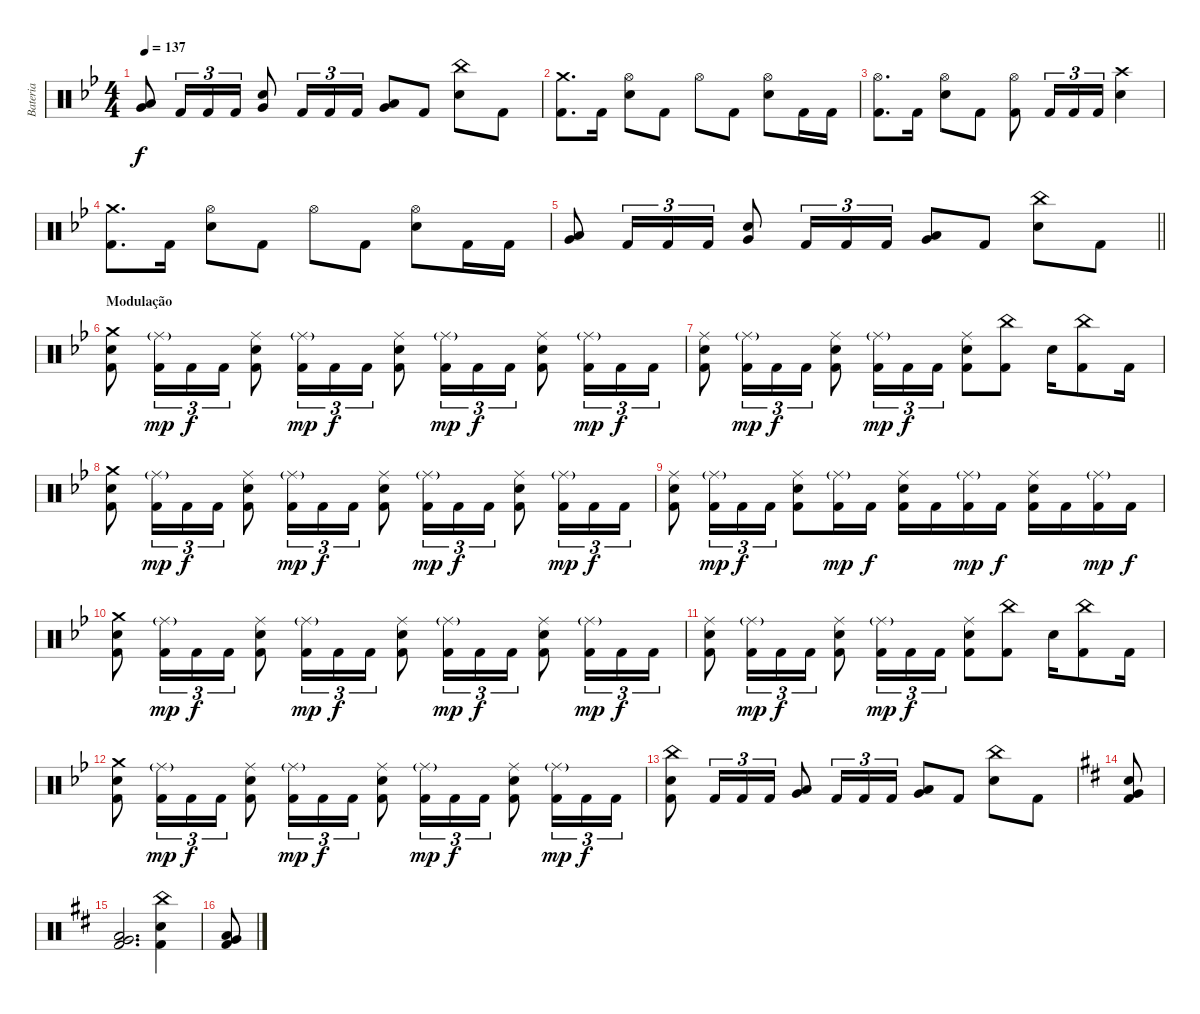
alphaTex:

\track ("Bateria" "Bateria") {instrument percussion}
\staff {score}
\articulation defaults
\ts (4 4)
\tempo 137
\clef neutral
\ks gminor
("Low Floor Tom (hit)" "Very Low Tom (hit)").8{dy f} "Kick (hit) 2".16{tu (3 2)} "Kick (hit) 2".16{tu (3 2)} "Kick (hit) 2".16{tu (3 2)} ("Very Low Tom (hit)" "Electric Snare (hit)").8 "Kick (hit) 2".16{tu (3 2)} "Kick (hit) 2".16{tu (3 2)} "Kick (hit) 2".16{tu (3 2)} ("Low Floor Tom (hit)" "Very Low Tom (hit)").8 "Kick (hit) 2".8 ("China (hit)" "Electric Snare (hit)").8 "Kick (hit) 2".8 |
("Crash medium (hit)" "Kick (hit) 2").8{d} "Kick (hit) 2".16 ("Hi-Hat (open)" "Electric Snare (hit)").8 "Kick (hit) 2".8 "Hi-Hat (open)".8 "Kick (hit) 2".8 ("Hi-Hat (open)" "Electric Snare (hit)").8 "Kick (hit) 2".16 "Kick (hit) 2".16 |
("Hi-Hat (open)" "Kick (hit) 2").8{d} "Kick (hit) 2".16 ("Hi-Hat (open)" "Electric Snare (hit)").8 "Kick (hit) 2".8 ("Hi-Hat (open)" "Kick (hit) 2").8 "Kick (hit) 2".16{tu (3 2)} "Kick (hit) 2".16{tu (3 2)} "Kick (hit) 2".16{tu (3 2)} ("Crash high (hit)" "Electric Snare (hit)").4 |
("Crash medium (hit)" "Kick (hit) 2").8{d} "Kick (hit) 2".16 ("Hi-Hat (open)" "Electric Snare (hit)").8 "Kick (hit) 2".8 "Hi-Hat (open)".8 "Kick (hit) 2".8 ("Hi-Hat (open)" "Electric Snare (hit)").8 "Kick (hit) 2".16 "Kick (hit) 2".16 |
\barLineRight lightlight
("Low Floor Tom (hit)" "Very Low Tom (hit)").8 "Kick (hit) 2".16{tu (3 2)} "Kick (hit) 2".16{tu (3 2)} "Kick (hit) 2".16{tu (3 2)} ("Very Low Tom (hit)" "Electric Snare (hit)").8 "Kick (hit) 2".16{tu (3 2)} "Kick (hit) 2".16{tu (3 2)} "Kick (hit) 2".16{tu (3 2)} ("Low Floor Tom (hit)" "Very Low Tom (hit)").8 "Kick (hit) 2".8 ("China (hit)" "Electric Snare (hit)").8 "Kick (hit) 2".8 |
\section ("" "Modulação")
("Crash medium (hit)" "Electric Snare (hit)" "Kick (hit) 2").8 ("Ride (middle)"{g} "Kick (hit) 2").16{tu (3 2) dy mp} "Kick (hit) 2".16{tu (3 2) dy f} "Kick (hit) 2".16{tu (3 2)} ("Ride (middle)" "Electric Snare (hit)" "Kick (hit) 2").8 ("Ride (middle)"{g} "Kick (hit) 2").16{tu (3 2) dy mp} "Kick (hit) 2".16{tu (3 2) dy f} "Kick (hit) 2".16{tu (3 2)} ("Ride (middle)" "Electric Snare (hit)" "Kick (hit) 2").8 ("Ride (middle)"{g} "Kick (hit) 2").16{tu (3 2) dy mp} "Kick (hit) 2".16{tu (3 2) dy f} "Kick (hit) 2".16{tu (3 2)} ("Ride (middle)" "Electric Snare (hit)" "Kick (hit) 2").8 ("Ride (middle)"{g} "Kick (hit) 2").16{tu (3 2) dy mp} "Kick (hit) 2".16{tu (3 2) dy f} "Kick (hit) 2".16{tu (3 2)} |
("Ride (middle)" "Electric Snare (hit)" "Kick (hit) 2").8 ("Ride (middle)"{g} "Kick (hit) 2").16{tu (3 2) dy mp} "Kick (hit) 2".16{tu (3 2) dy f} "Kick (hit) 2".16{tu (3 2)} ("Ride (middle)" "Electric Snare (hit)" "Kick (hit) 2").8 ("Ride (middle)"{g} "Kick (hit) 2").16{tu (3 2) dy mp} "Kick (hit) 2".16{tu (3 2) dy f} "Kick (hit) 2".16{tu (3 2)} ("Ride (middle)" "Electric Snare (hit)" "Kick (hit) 2").8 ("China (hit)" "Kick (hit) 2").8 "Electric Snare (hit)".16 ("China (hit)" "Kick (hit) 2").8 "Kick (hit) 2".16 |
("Crash medium (hit)" "Electric Snare (hit)" "Kick (hit) 2").8 ("Ride (middle)"{g} "Kick (hit) 2").16{tu (3 2) dy mp} "Kick (hit) 2".16{tu (3 2) dy f} "Kick (hit) 2".16{tu (3 2)} ("Ride (middle)" "Electric Snare (hit)" "Kick (hit) 2").8 ("Ride (middle)"{g} "Kick (hit) 2").16{tu (3 2) dy mp} "Kick (hit) 2".16{tu (3 2) dy f} "Kick (hit) 2".16{tu (3 2)} ("Ride (middle)" "Electric Snare (hit)" "Kick (hit) 2").8 ("Ride (middle)"{g} "Kick (hit) 2").16{tu (3 2) dy mp} "Kick (hit) 2".16{tu (3 2) dy f} "Kick (hit) 2".16{tu (3 2)} ("Ride (middle)" "Electric Snare (hit)" "Kick (hit) 2").8 ("Ride (middle)"{g} "Kick (hit) 2").16{tu (3 2) dy mp} "Kick (hit) 2".16{tu (3 2) dy f} "Kick (hit) 2".16{tu (3 2)} |
("Ride (middle)" "Electric Snare (hit)" "Kick (hit) 2").8 ("Ride (middle)"{g} "Kick (hit) 2").16{tu (3 2) dy mp} "Kick (hit) 2".16{tu (3 2) dy f} "Kick (hit) 2".16{tu (3 2)} ("Ride (middle)" "Electric Snare (hit)" "Kick (hit) 2").8 ("Ride (middle)"{g} "Kick (hit) 2").16{dy mp} "Kick (hit) 2".16{dy f} ("Ride (middle)" "Electric Snare (hit)" "Kick (hit) 2").16 "Kick (hit) 2".16 ("Ride (middle)"{g} "Kick (hit) 2").16{dy mp} "Kick (hit) 2".16{dy f} ("Ride (middle)" "Electric Snare (hit)" "Kick (hit) 2").16 "Kick (hit) 2".16 ("Ride (middle)"{g} "Kick (hit) 2").16{dy mp} "Kick (hit) 2".16{dy f} |
("Crash medium (hit)" "Electric Snare (hit)" "Kick (hit) 2").8 ("Ride (middle)"{g} "Kick (hit) 2").16{tu (3 2) dy mp} "Kick (hit) 2".16{tu (3 2) dy f} "Kick (hit) 2".16{tu (3 2)} ("Ride (middle)" "Electric Snare (hit)" "Kick (hit) 2").8 ("Ride (middle)"{g} "Kick (hit) 2").16{tu (3 2) dy mp} "Kick (hit) 2".16{tu (3 2) dy f} "Kick (hit) 2".16{tu (3 2)} ("Ride (middle)" "Electric Snare (hit)" "Kick (hit) 2").8 ("Ride (middle)"{g} "Kick (hit) 2").16{tu (3 2) dy mp} "Kick (hit) 2".16{tu (3 2) dy f} "Kick (hit) 2".16{tu (3 2)} ("Ride (middle)" "Electric Snare (hit)" "Kick (hit) 2").8 ("Ride (middle)"{g} "Kick (hit) 2").16{tu (3 2) dy mp} "Kick (hit) 2".16{tu (3 2) dy f} "Kick (hit) 2".16{tu (3 2)} |
("Ride (middle)" "Electric Snare (hit)" "Kick (hit) 2").8 ("Ride (middle)"{g} "Kick (hit) 2").16{tu (3 2) dy mp} "Kick (hit) 2".16{tu (3 2) dy f} "Kick (hit) 2".16{tu (3 2)} ("Ride (middle)" "Electric Snare (hit)" "Kick (hit) 2").8 ("Ride (middle)"{g} "Kick (hit) 2").16{tu (3 2) dy mp} "Kick (hit) 2".16{tu (3 2) dy f} "Kick (hit) 2".16{tu (3 2)} ("Ride (middle)" "Electric Snare (hit)" "Kick (hit) 2").8 ("China (hit)" "Kick (hit) 2").8 "Electric Snare (hit)".16 ("China (hit)" "Kick (hit) 2").8 "Kick (hit) 2".16 |
("Crash medium (hit)" "Electric Snare (hit)" "Kick (hit) 2").8 ("Ride (middle)"{g} "Kick (hit) 2").16{tu (3 2) dy mp} "Kick (hit) 2".16{tu (3 2) dy f} "Kick (hit) 2".16{tu (3 2)} ("Ride (middle)" "Electric Snare (hit)" "Kick (hit) 2").8 ("Ride (middle)"{g} "Kick (hit) 2").16{tu (3 2) dy mp} "Kick (hit) 2".16{tu (3 2) dy f} "Kick (hit) 2".16{tu (3 2)} ("Ride (middle)" "Electric Snare (hit)" "Kick (hit) 2").8 ("Ride (middle)"{g} "Kick (hit) 2").16{tu (3 2) dy mp} "Kick (hit) 2".16{tu (3 2) dy f} "Kick (hit) 2".16{tu (3 2)} ("Ride (middle)" "Electric Snare (hit)" "Kick (hit) 2").8 ("Ride (middle)"{g} "Kick (hit) 2").16{tu (3 2) dy mp} "Kick (hit) 2".16{tu (3 2) dy f} "Kick (hit) 2".16{tu (3 2)} |
("China (hit)" "Electric Snare (hit)" "Kick (hit) 2").8 "Kick (hit) 2".16{tu (3 2)} "Kick (hit) 2".16{tu (3 2)} "Kick (hit) 2".16{tu (3 2)} ("Low Tom (hit)" "Very Low Tom (hit)").8 "Kick (hit) 2".16{tu (3 2)} "Kick (hit) 2".16{tu (3 2)} "Kick (hit) 2".16{tu (3 2)} ("Low Tom (hit)" "Very Low Tom (hit)").8 "Kick (hit) 2".8 ("China (hit)" "Electric Snare (hit)").8 "Kick (hit) 2".8 |
\ks bminor
("Very Low Tom (hit)" "Electric Snare (hit)" "Kick (hit) 2").8 |
("Low Floor Tom (hit)" "Very Low Tom (hit)" "Kick (hit) 2").2{d} ("China (hit)" "Electric Snare (hit)" "Kick (hit) 2").4 |
("Low Floor Tom (hit)" "Very Low Tom (hit)" "Kick (hit) 2").8
